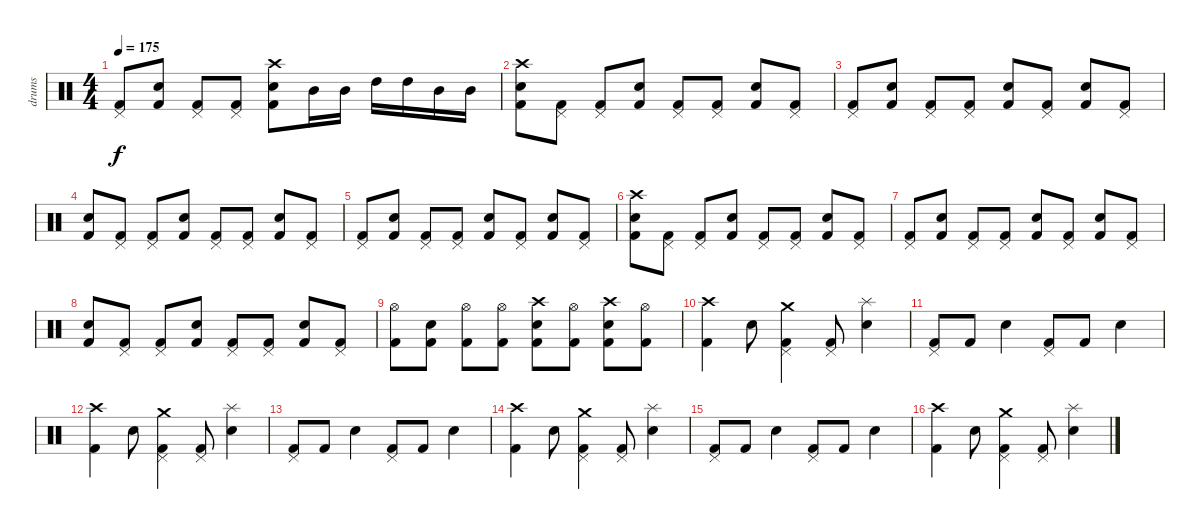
\track ("drums" "drums") {instrument percussion}
\staff {score}
\articulation defaults
\ts (4 4)
\tempo 175
\clef neutral
\ks c
("Pedal Hi-Hat (hit)" "Kick (hit) 2").8{dy f} ("Electric Snare (hit)" "Kick (hit) 2").8 ("Pedal Hi-Hat (hit)" "Kick (hit) 2").8 ("Pedal Hi-Hat (hit)" "Kick (hit) 2").8 ("Crash high (hit)" "Electric Snare (hit)" "Kick (hit) 2").8 "Mid Tom (hit)".16 "Mid Tom (hit)".16 "High Tom (hit)".16 "High Tom (hit)".16 "Mid Tom (hit)".16 "Mid Tom (hit)".16 |
("Crash high (hit)" "Electric Snare (hit)" "Kick (hit) 2").8 ("Pedal Hi-Hat (hit)" "Kick (hit) 2").8 ("Pedal Hi-Hat (hit)" "Kick (hit) 2").8 ("Electric Snare (hit)" "Kick (hit) 2").8 ("Pedal Hi-Hat (hit)" "Kick (hit) 2").8 ("Pedal Hi-Hat (hit)" "Kick (hit) 2").8 ("Electric Snare (hit)" "Kick (hit) 2").8 ("Pedal Hi-Hat (hit)" "Kick (hit) 2").8 |
("Pedal Hi-Hat (hit)" "Kick (hit) 2").8 ("Electric Snare (hit)" "Kick (hit) 2").8 ("Pedal Hi-Hat (hit)" "Kick (hit) 2").8 ("Pedal Hi-Hat (hit)" "Kick (hit) 2").8 ("Electric Snare (hit)" "Kick (hit) 2").8 ("Pedal Hi-Hat (hit)" "Kick (hit) 2").8 ("Electric Snare (hit)" "Kick (hit) 2").8 ("Pedal Hi-Hat (hit)" "Kick (hit) 2").8 |
("Electric Snare (hit)" "Kick (hit) 2").8 ("Pedal Hi-Hat (hit)" "Kick (hit) 2").8 ("Pedal Hi-Hat (hit)" "Kick (hit) 2").8 ("Electric Snare (hit)" "Kick (hit) 2").8 ("Pedal Hi-Hat (hit)" "Kick (hit) 2").8 ("Pedal Hi-Hat (hit)" "Kick (hit) 2").8 ("Electric Snare (hit)" "Kick (hit) 2").8 ("Pedal Hi-Hat (hit)" "Kick (hit) 2").8 |
("Pedal Hi-Hat (hit)" "Kick (hit) 2").8 ("Electric Snare (hit)" "Kick (hit) 2").8 ("Pedal Hi-Hat (hit)" "Kick (hit) 2").8 ("Pedal Hi-Hat (hit)" "Kick (hit) 2").8 ("Electric Snare (hit)" "Kick (hit) 2").8 ("Pedal Hi-Hat (hit)" "Kick (hit) 2").8 ("Electric Snare (hit)" "Kick (hit) 2").8 ("Pedal Hi-Hat (hit)" "Kick (hit) 2").8 |
("Crash high (hit)" "Electric Snare (hit)" "Kick (hit) 2").8 ("Pedal Hi-Hat (hit)" "Kick (hit) 2").8 ("Pedal Hi-Hat (hit)" "Kick (hit) 2").8 ("Electric Snare (hit)" "Kick (hit) 2").8 ("Pedal Hi-Hat (hit)" "Kick (hit) 2").8 ("Pedal Hi-Hat (hit)" "Kick (hit) 2").8 ("Electric Snare (hit)" "Kick (hit) 2").8 ("Pedal Hi-Hat (hit)" "Kick (hit) 2").8 |
("Pedal Hi-Hat (hit)" "Kick (hit) 2").8 ("Electric Snare (hit)" "Kick (hit) 2").8 ("Pedal Hi-Hat (hit)" "Kick (hit) 2").8 ("Pedal Hi-Hat (hit)" "Kick (hit) 2").8 ("Electric Snare (hit)" "Kick (hit) 2").8 ("Pedal Hi-Hat (hit)" "Kick (hit) 2").8 ("Electric Snare (hit)" "Kick (hit) 2").8 ("Pedal Hi-Hat (hit)" "Kick (hit) 2").8 |
("Electric Snare (hit)" "Kick (hit) 2").8 ("Pedal Hi-Hat (hit)" "Kick (hit) 2").8 ("Pedal Hi-Hat (hit)" "Kick (hit) 2").8 ("Electric Snare (hit)" "Kick (hit) 2").8 ("Pedal Hi-Hat (hit)" "Kick (hit) 2").8 ("Pedal Hi-Hat (hit)" "Kick (hit) 2").8 ("Electric Snare (hit)" "Kick (hit) 2").8 ("Pedal Hi-Hat (hit)" "Kick (hit) 2").8 |
("Hi-Hat (open)" "Kick (hit) 2").8 ("Electric Snare (hit)" "Kick (hit) 2").8 ("Hi-Hat (open)" "Kick (hit) 2").8 ("Hi-Hat (open)" "Kick (hit) 2").8 ("Crash high (hit)" "Electric Snare (hit)" "Kick (hit) 2").8 ("Hi-Hat (open)" "Kick (hit) 2").8 ("Crash high (hit)" "Electric Snare (hit)" "Kick (hit) 2").8 ("Hi-Hat (open)" "Kick (hit) 2").8 |
("Crash high (hit)" "Kick (hit) 2").4 "Electric Snare (hit)".8 ("Crash medium (hit)" "Pedal Hi-Hat (hit)" "Kick (hit) 2").4 ("Pedal Hi-Hat (hit)" "Kick (hit) 2").8 ("Splash (hit)" "Electric Snare (hit)").4 |
("Pedal Hi-Hat (hit)" "Kick (hit) 2").8 "Kick (hit) 2".8 "Electric Snare (hit)".4 ("Pedal Hi-Hat (hit)" "Kick (hit) 2").8 "Kick (hit) 2".8 "Electric Snare (hit)".4 |
("Crash high (hit)" "Kick (hit) 2").4 "Electric Snare (hit)".8 ("Crash medium (hit)" "Pedal Hi-Hat (hit)" "Kick (hit) 2").4 ("Pedal Hi-Hat (hit)" "Kick (hit) 2").8 ("Splash (hit)" "Electric Snare (hit)").4 |
("Pedal Hi-Hat (hit)" "Kick (hit) 2").8 "Kick (hit) 2".8 "Electric Snare (hit)".4 ("Pedal Hi-Hat (hit)" "Kick (hit) 2").8 "Kick (hit) 2".8 "Electric Snare (hit)".4 |
("Crash high (hit)" "Kick (hit) 2").4 "Electric Snare (hit)".8 ("Crash medium (hit)" "Pedal Hi-Hat (hit)" "Kick (hit) 2").4 ("Pedal Hi-Hat (hit)" "Kick (hit) 2").8 ("Splash (hit)" "Electric Snare (hit)").4 |
("Pedal Hi-Hat (hit)" "Kick (hit) 2").8 "Kick (hit) 2".8 "Electric Snare (hit)".4 ("Pedal Hi-Hat (hit)" "Kick (hit) 2").8 "Kick (hit) 2".8 "Electric Snare (hit)".4 |
("Crash high (hit)" "Kick (hit) 2").4 "Electric Snare (hit)".8 ("Crash medium (hit)" "Pedal Hi-Hat (hit)" "Kick (hit) 2").4 ("Pedal Hi-Hat (hit)" "Kick (hit) 2").8 ("Splash (hit)" "Electric Snare (hit)").4
